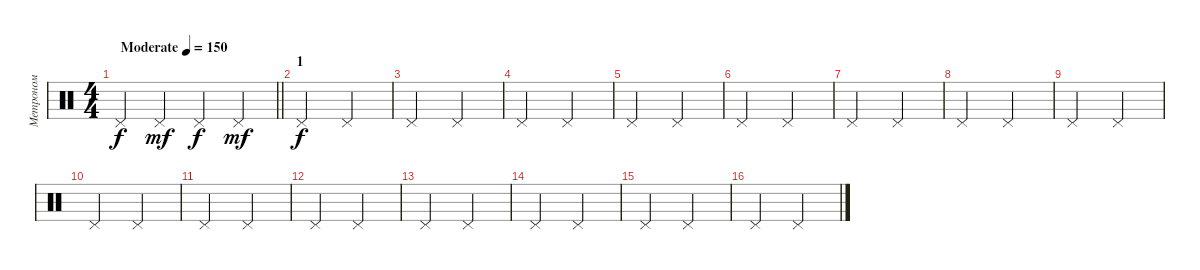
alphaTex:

\track ("Метроном" "Метроном") {mute instrument percussion}
\staff {score}
\articulation defaults
\ts (4 4)
\tempo (150 "Moderate")
\clef neutral
\barLineRight lightlight
\ks c "Pedal Hi-Hat (hit)".4{dy f} "Pedal Hi-Hat (hit)".4{dy mf} "Pedal Hi-Hat (hit)".4{dy f} "Pedal Hi-Hat (hit)".4{dy mf}
|
\section ("" "1")
"Pedal Hi-Hat (hit)".2{dy f} "Pedal Hi-Hat (hit)".2 |
"Pedal Hi-Hat (hit)".2 "Pedal Hi-Hat (hit)".2 |
"Pedal Hi-Hat (hit)".2 "Pedal Hi-Hat (hit)".2 |
"Pedal Hi-Hat (hit)".2 "Pedal Hi-Hat (hit)".2 |
"Pedal Hi-Hat (hit)".2 "Pedal Hi-Hat (hit)".2 |
"Pedal Hi-Hat (hit)".2 "Pedal Hi-Hat (hit)".2 |
"Pedal Hi-Hat (hit)".2 "Pedal Hi-Hat (hit)".2 |
"Pedal Hi-Hat (hit)".2 "Pedal Hi-Hat (hit)".2 |
"Pedal Hi-Hat (hit)".2 "Pedal Hi-Hat (hit)".2 |
"Pedal Hi-Hat (hit)".2 "Pedal Hi-Hat (hit)".2 |
"Pedal Hi-Hat (hit)".2 "Pedal Hi-Hat (hit)".2 |
"Pedal Hi-Hat (hit)".2 "Pedal Hi-Hat (hit)".2 |
"Pedal Hi-Hat (hit)".2 "Pedal Hi-Hat (hit)".2 |
"Pedal Hi-Hat (hit)".2 "Pedal Hi-Hat (hit)".2 |
"Pedal Hi-Hat (hit)".2 "Pedal Hi-Hat (hit)".2
